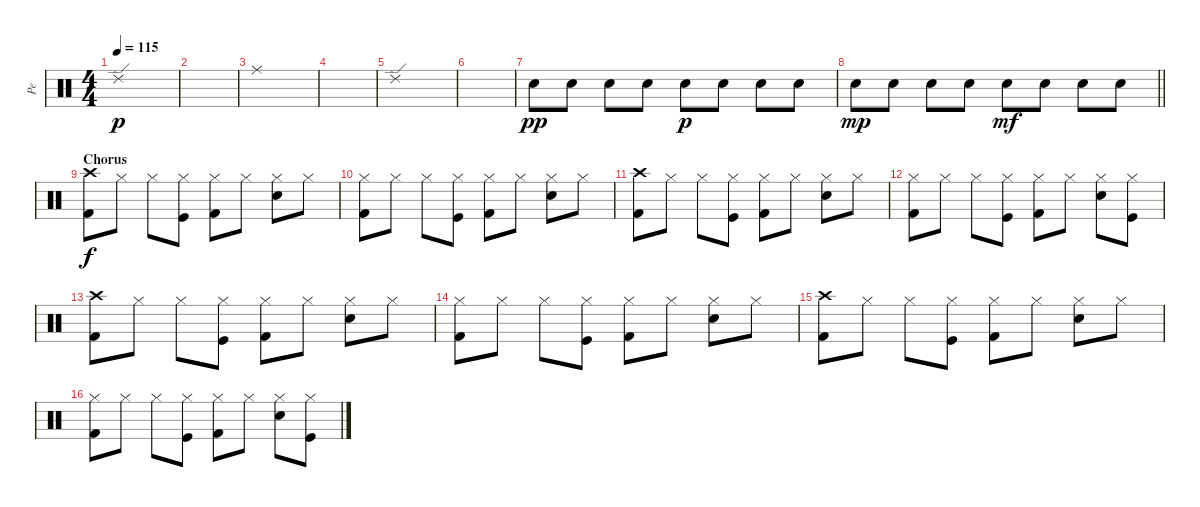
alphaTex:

\track ("Pe" "Pe") {instrument percussion}
\staff {score}
\articulation defaults
\ts (4 4)
\tempo 115
\clef neutral
\ks c "Ride (edge) 2".1{dy p}
|
|
"Ride (middle)".1 |
|
"Ride (edge) 2".1 |
|
"Electric Snare (hit)".8{dy pp} "Electric Snare (hit)".8 "Electric Snare (hit)".8 "Electric Snare (hit)".8 "Electric Snare (hit)".8{dy p} "Electric Snare (hit)".8 "Electric Snare (hit)".8 "Electric Snare (hit)".8 |
\barLineRight lightlight "Electric Snare (hit)".8{dy mp} "Electric Snare (hit)".8 "Electric Snare (hit)".8 "Electric Snare (hit)".8 "Electric Snare (hit)".8{dy mf} "Electric Snare (hit)".8 "Electric Snare (hit)".8 "Electric Snare (hit)".8
|
\section ("" "Chorus")
("Kick (hit) 2" "Crash high (hit)").8{dy f} "Hi-Hat (closed)".8 "Hi-Hat (closed)".8 ("Kick (hit)" "Hi-Hat (closed)").8 ("Kick (hit) 2" "Hi-Hat (closed)").8 "Hi-Hat (closed)".8 ("Electric Snare (hit)" "Hi-Hat (closed)").8 "Hi-Hat (closed)".8 |
("Kick (hit) 2" "Hi-Hat (closed)").8 "Hi-Hat (closed)".8 "Hi-Hat (closed)".8 ("Kick (hit)" "Hi-Hat (closed)").8 ("Kick (hit) 2" "Hi-Hat (closed)").8 "Hi-Hat (closed)".8 ("Electric Snare (hit)" "Hi-Hat (closed)").8 "Hi-Hat (closed)".8 |
("Kick (hit) 2" "Crash high (hit)").8 "Hi-Hat (closed)".8 "Hi-Hat (closed)".8 ("Kick (hit)" "Hi-Hat (closed)").8 ("Kick (hit) 2" "Hi-Hat (closed)").8 "Hi-Hat (closed)".8 ("Electric Snare (hit)" "Hi-Hat (closed)").8 "Hi-Hat (closed)".8 |
("Kick (hit) 2" "Hi-Hat (closed)").8 "Hi-Hat (closed)".8 "Hi-Hat (closed)".8 ("Kick (hit)" "Hi-Hat (closed)").8 ("Kick (hit) 2" "Hi-Hat (closed)").8 "Hi-Hat (closed)".8 ("Electric Snare (hit)" "Hi-Hat (closed)").8 ("Kick (hit)" "Hi-Hat (closed)").8 |
("Kick (hit) 2" "Crash high (hit)").8 "Hi-Hat (closed)".8 "Hi-Hat (closed)".8 ("Kick (hit)" "Hi-Hat (closed)").8 ("Kick (hit) 2" "Hi-Hat (closed)").8 "Hi-Hat (closed)".8 ("Electric Snare (hit)" "Hi-Hat (closed)").8 "Hi-Hat (closed)".8 |
("Kick (hit) 2" "Hi-Hat (closed)").8 "Hi-Hat (closed)".8 "Hi-Hat (closed)".8 ("Kick (hit)" "Hi-Hat (closed)").8 ("Kick (hit) 2" "Hi-Hat (closed)").8 "Hi-Hat (closed)".8 ("Electric Snare (hit)" "Hi-Hat (closed)").8 "Hi-Hat (closed)".8 |
("Kick (hit) 2" "Crash high (hit)").8 "Hi-Hat (closed)".8 "Hi-Hat (closed)".8 ("Kick (hit)" "Hi-Hat (closed)").8 ("Kick (hit) 2" "Hi-Hat (closed)").8 "Hi-Hat (closed)".8 ("Electric Snare (hit)" "Hi-Hat (closed)").8 "Hi-Hat (closed)".8 |
("Kick (hit) 2" "Hi-Hat (closed)").8 "Hi-Hat (closed)".8 "Hi-Hat (closed)".8 ("Kick (hit)" "Hi-Hat (closed)").8 ("Kick (hit) 2" "Hi-Hat (closed)").8 "Hi-Hat (closed)".8 ("Electric Snare (hit)" "Hi-Hat (closed)").8 ("Kick (hit)" "Hi-Hat (closed)").8
